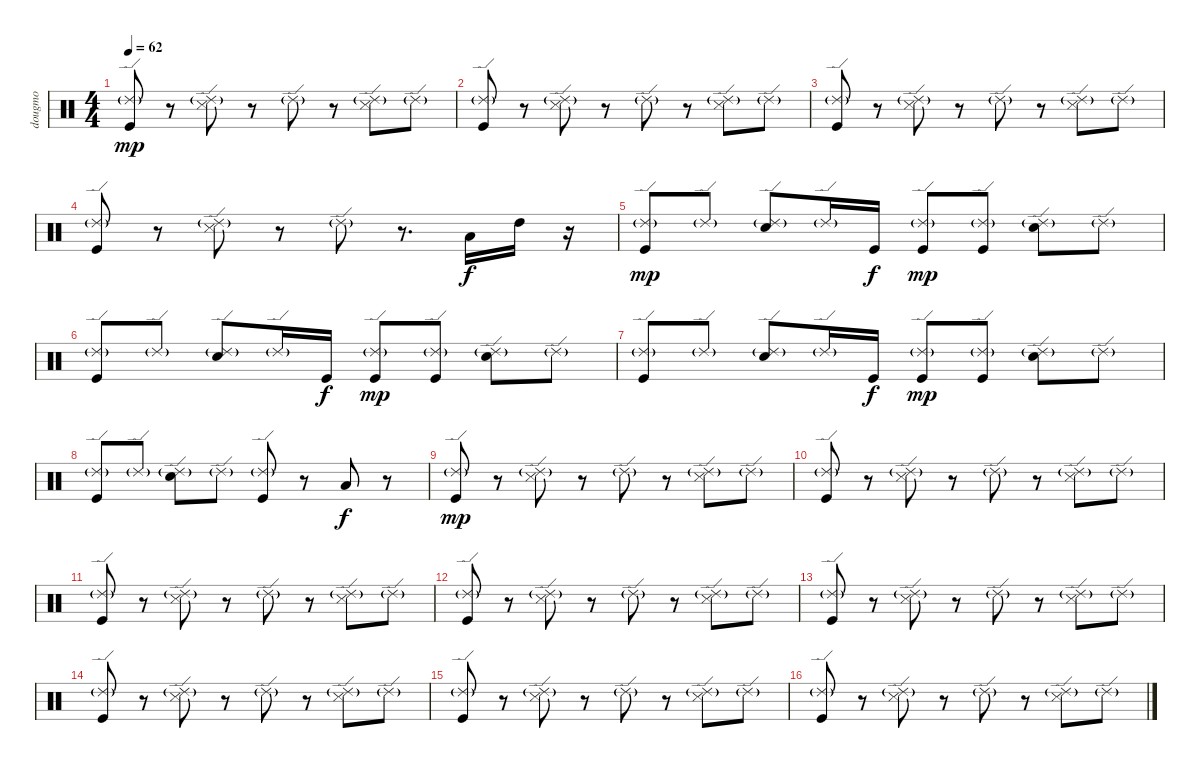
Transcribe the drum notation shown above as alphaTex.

\track ("dougmo" "dougmo") {instrument percussion}
\staff {score}
\articulation defaults
\ts (4 4)
\tempo 62
\clef neutral
\ks c
("Kick (hit)" "Ride (edge) 2"{g}).8{dy mp} r.8 ("Snare (side stick) 3" "Ride (edge) 2"{g}).8 r.8 "Ride (edge) 2"{g}.8 r.8 ("Snare (side stick) 3" "Ride (edge) 2"{g}).8 "Ride (edge) 2"{g}.8 |
("Kick (hit)" "Ride (edge) 2"{g}).8 r.8 ("Snare (side stick) 3" "Ride (edge) 2"{g}).8 r.8 "Ride (edge) 2"{g}.8 r.8 ("Snare (side stick) 3" "Ride (edge) 2"{g}).8 "Ride (edge) 2"{g}.8 |
("Kick (hit)" "Ride (edge) 2"{g}).8 r.8 ("Snare (side stick) 3" "Ride (edge) 2"{g}).8 r.8 "Ride (edge) 2"{g}.8 r.8 ("Snare (side stick) 3" "Ride (edge) 2"{g}).8 "Ride (edge) 2"{g}.8 |
("Ride (edge) 2"{g} "Kick (hit)").8 r.8 ("Ride (edge) 2"{g} "Snare (side stick) 3").8 r.8 "Ride (edge) 2"{g}.8 r.8{d} "Low Tom (hit)".16{dy f} "High Tom (hit)".16 r.16 |
("Kick (hit)" "Ride (edge) 2"{g}).8{dy mp} "Ride (edge) 2"{g}.8 ("Snare (hit) 2" "Ride (edge) 2"{g}).8 "Ride (edge) 2"{g}.16 "Kick (hit)".16{dy f} ("Kick (hit)" "Ride (edge) 2"{g}).8{dy mp} ("Kick (hit)" "Ride (edge) 2"{g}).8 ("Snare (hit) 2" "Ride (edge) 2"{g}).8 "Ride (edge) 2"{g}.8 |
("Kick (hit)" "Ride (edge) 2"{g}).8 "Ride (edge) 2"{g}.8 ("Snare (hit) 2" "Ride (edge) 2"{g}).8 "Ride (edge) 2"{g}.16 "Kick (hit)".16{dy f} ("Kick (hit)" "Ride (edge) 2"{g}).8{dy mp} ("Kick (hit)" "Ride (edge) 2"{g}).8 ("Snare (hit) 2" "Ride (edge) 2"{g}).8 "Ride (edge) 2"{g}.8 |
("Kick (hit)" "Ride (edge) 2"{g}).8 "Ride (edge) 2"{g}.8 ("Snare (hit) 2" "Ride (edge) 2"{g}).8 "Ride (edge) 2"{g}.16 "Kick (hit)".16{dy f} ("Kick (hit)" "Ride (edge) 2"{g}).8{dy mp} ("Kick (hit)" "Ride (edge) 2"{g}).8 ("Snare (hit) 2" "Ride (edge) 2"{g}).8 "Ride (edge) 2"{g}.8 |
("Ride (edge) 2"{g} "Kick (hit)").8 "Ride (edge) 2"{g}.8 ("Ride (edge) 2"{g} "Snare (hit) 2").8 "Ride (edge) 2"{g}.8 ("Ride (edge) 2"{g} "Kick (hit)").8 r.8 "Low Tom (hit)".8{dy f} r.8 |
("Kick (hit)" "Ride (edge) 2"{g}).8{dy mp} r.8 ("Snare (side stick) 3" "Ride (edge) 2"{g}).8 r.8 "Ride (edge) 2"{g}.8 r.8 ("Snare (side stick) 3" "Ride (edge) 2"{g}).8 "Ride (edge) 2"{g}.8 |
("Kick (hit)" "Ride (edge) 2"{g}).8 r.8 ("Snare (side stick) 3" "Ride (edge) 2"{g}).8 r.8 "Ride (edge) 2"{g}.8 r.8 ("Snare (side stick) 3" "Ride (edge) 2"{g}).8 "Ride (edge) 2"{g}.8 |
("Kick (hit)" "Ride (edge) 2"{g}).8 r.8 ("Snare (side stick) 3" "Ride (edge) 2"{g}).8 r.8 "Ride (edge) 2"{g}.8 r.8 ("Snare (side stick) 3" "Ride (edge) 2"{g}).8 "Ride (edge) 2"{g}.8 |
("Kick (hit)" "Ride (edge) 2"{g}).8 r.8 ("Snare (side stick) 3" "Ride (edge) 2"{g}).8 r.8 "Ride (edge) 2"{g}.8 r.8 ("Snare (side stick) 3" "Ride (edge) 2"{g}).8 "Ride (edge) 2"{g}.8 |
("Kick (hit)" "Ride (edge) 2"{g}).8 r.8 ("Snare (side stick) 3" "Ride (edge) 2"{g}).8 r.8 "Ride (edge) 2"{g}.8 r.8 ("Snare (side stick) 3" "Ride (edge) 2"{g}).8 "Ride (edge) 2"{g}.8 |
("Kick (hit)" "Ride (edge) 2"{g}).8 r.8 ("Snare (side stick) 3" "Ride (edge) 2"{g}).8 r.8 "Ride (edge) 2"{g}.8 r.8 ("Snare (side stick) 3" "Ride (edge) 2"{g}).8 "Ride (edge) 2"{g}.8 |
("Kick (hit)" "Ride (edge) 2"{g}).8 r.8 ("Snare (side stick) 3" "Ride (edge) 2"{g}).8 r.8 "Ride (edge) 2"{g}.8 r.8 ("Snare (side stick) 3" "Ride (edge) 2"{g}).8 "Ride (edge) 2"{g}.8 |
("Kick (hit)" "Ride (edge) 2"{g}).8 r.8 ("Snare (side stick) 3" "Ride (edge) 2"{g}).8 r.8 "Ride (edge) 2"{g}.8 r.8 ("Snare (side stick) 3" "Ride (edge) 2"{g}).8 "Ride (edge) 2"{g}.8
